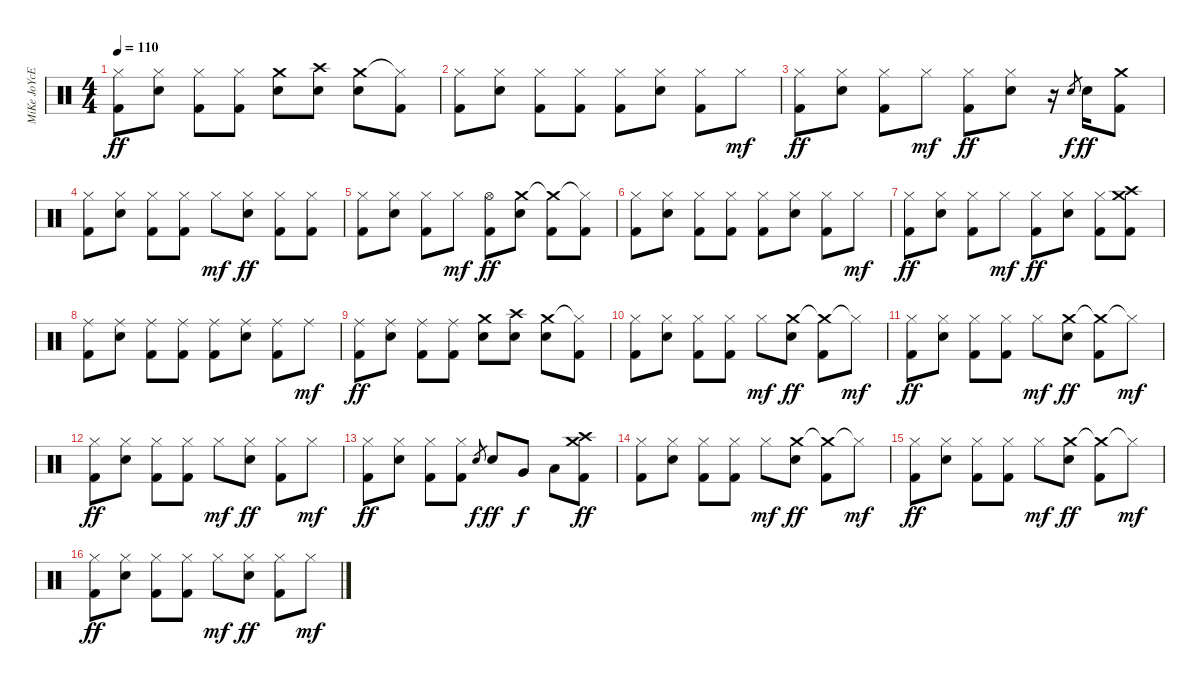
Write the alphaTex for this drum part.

\track ("MiKe JoYcE" "MiKe JoYcE") {instrument percussion}
\staff {score}
\articulation defaults
\ts (4 4)
\tempo 110
\clef neutral
\ks c
("Hi-Hat (closed)" "Kick (hit) 2").8{dy ff} ("Hi-Hat (closed)" "Electric Snare (hit)").8 ("Hi-Hat (closed)" "Kick (hit) 2").8 ("Hi-Hat (closed)" "Kick (hit) 2").8 ("Crash medium (hit)" "Electric Snare (hit)").8 ("Crash high (hit)" "Electric Snare (hit)").8 ("Crash medium (hit)" "Electric Snare (hit)").8 ("Hi-Hat (closed)"{t} "Kick (hit) 2").8 |
("Hi-Hat (closed)" "Kick (hit) 2").8 ("Hi-Hat (closed)" "Electric Snare (hit)").8 ("Hi-Hat (closed)" "Kick (hit) 2").8 ("Hi-Hat (closed)" "Kick (hit) 2").8 ("Hi-Hat (closed)" "Kick (hit) 2").8 ("Hi-Hat (closed)" "Electric Snare (hit)").8 ("Hi-Hat (closed)" "Kick (hit) 2").8 "Hi-Hat (closed)".8{dy mf} |
("Hi-Hat (closed)" "Kick (hit) 2").8{dy ff} ("Hi-Hat (closed)" "Electric Snare (hit)").8 ("Hi-Hat (closed)" "Kick (hit) 2").8 "Hi-Hat (closed)".8{dy mf} ("Hi-Hat (closed)" "Kick (hit) 2").8{dy ff} ("Hi-Hat (closed)" "Electric Snare (hit)").8 r.16 "Electric Snare (hit)".8{gr dy f} "Electric Snare (hit)".16{dy ff} ("Crash medium (hit)" "Kick (hit) 2").8 |
("Hi-Hat (closed)" "Kick (hit) 2").8 ("Hi-Hat (closed)" "Electric Snare (hit)").8 ("Hi-Hat (closed)" "Kick (hit) 2").8 ("Hi-Hat (closed)" "Kick (hit) 2").8 "Hi-Hat (closed)".8{dy mf} ("Hi-Hat (closed)" "Electric Snare (hit)").8{dy ff} ("Hi-Hat (closed)" "Kick (hit) 2").8 ("Hi-Hat (closed)" "Kick (hit) 2").8 |
("Hi-Hat (closed)" "Kick (hit) 2").8 ("Hi-Hat (closed)" "Electric Snare (hit)").8 ("Hi-Hat (closed)" "Kick (hit) 2").8 "Hi-Hat (closed)".8{dy mf} ("Hi-Hat (open)" "Kick (hit) 2").8{dy ff} ("Crash medium (hit)" "Electric Snare (hit)").8 ("Crash medium (hit)"{t} "Kick (hit) 2").8 ("Hi-Hat (closed)"{t} "Kick (hit) 2").8 |
("Hi-Hat (closed)" "Kick (hit) 2").8 ("Hi-Hat (closed)" "Electric Snare (hit)").8 ("Hi-Hat (closed)" "Kick (hit) 2").8 ("Hi-Hat (closed)" "Kick (hit) 2").8 ("Hi-Hat (closed)" "Kick (hit) 2").8 ("Hi-Hat (closed)" "Electric Snare (hit)").8 ("Hi-Hat (closed)" "Kick (hit) 2").8 "Hi-Hat (closed)".8{dy mf} |
("Hi-Hat (closed)" "Kick (hit) 2").8{dy ff} ("Hi-Hat (closed)" "Electric Snare (hit)").8 ("Hi-Hat (closed)" "Kick (hit) 2").8 "Hi-Hat (closed)".8{dy mf} ("Hi-Hat (closed)" "Kick (hit) 2").8{dy ff} ("Hi-Hat (closed)" "Electric Snare (hit)").8 ("Hi-Hat (closed)" "Kick (hit) 2").8 ("Crash high (hit)" "Crash medium (hit)" "Kick (hit) 2").8 |
("Ride (middle)" "Kick (hit) 2").8 ("Ride (middle)" "Electric Snare (hit)").8 ("Ride (middle)" "Kick (hit) 2").8 ("Ride (middle)" "Kick (hit) 2").8 ("Ride (middle)" "Kick (hit) 2").8 ("Ride (middle)" "Electric Snare (hit)").8 ("Ride (middle)" "Kick (hit) 2").8 "Ride (middle)".8{dy mf} |
("Ride (middle)" "Kick (hit) 2").8{dy ff} ("Ride (middle)" "Electric Snare (hit)").8 ("Ride (middle)" "Kick (hit) 2").8 ("Ride (middle)" "Kick (hit) 2").8 ("Crash medium (hit)" "Electric Snare (hit)").8 ("Crash high (hit)" "Electric Snare (hit)").8 ("Crash medium (hit)" "Electric Snare (hit)").8 ("Hi-Hat (closed)"{t} "Kick (hit) 2").8 |
("Hi-Hat (closed)" "Kick (hit) 2").8 ("Hi-Hat (closed)" "Electric Snare (hit)").8 ("Hi-Hat (closed)" "Kick (hit) 2").8 ("Hi-Hat (closed)" "Kick (hit) 2").8 "Hi-Hat (closed)".8{dy mf} ("Crash medium (hit)" "Electric Snare (hit)").8{dy ff} ("Crash medium (hit)"{t} "Kick (hit) 2").8 "Hi-Hat (closed)"{t}.8{dy mf} |
("Hi-Hat (closed)" "Kick (hit) 2").8{dy ff} ("Hi-Hat (closed)" "Electric Snare (hit)").8 ("Hi-Hat (closed)" "Kick (hit) 2").8 ("Hi-Hat (closed)" "Kick (hit) 2").8 "Hi-Hat (closed)".8{dy mf} ("Crash medium (hit)" "Electric Snare (hit)").8{dy ff} ("Crash medium (hit)"{t} "Kick (hit) 2").8 "Hi-Hat (closed)"{t}.8{dy mf} |
("Hi-Hat (closed)" "Kick (hit) 2").8{dy ff} ("Hi-Hat (closed)" "Electric Snare (hit)").8 ("Hi-Hat (closed)" "Kick (hit) 2").8 ("Hi-Hat (closed)" "Kick (hit) 2").8 "Hi-Hat (closed)".8{dy mf} ("Hi-Hat (closed)" "Electric Snare (hit)").8{dy ff} ("Hi-Hat (closed)" "Kick (hit) 2").8 "Hi-Hat (closed)".8{dy mf} |
("Hi-Hat (closed)" "Kick (hit) 2").8{dy ff} ("Hi-Hat (closed)" "Electric Snare (hit)").8 ("Hi-Hat (closed)" "Kick (hit) 2").8 ("Hi-Hat (closed)" "Kick (hit) 2").8 "Electric Snare (hit)".8{gr dy f} "Electric Snare (hit)".8{dy ff} "Very Low Tom (hit)".8{dy f} "Low Floor Tom (hit)".8 ("Crash high (hit)" "Crash medium (hit)" "Kick (hit) 2").8{dy ff} |
("Hi-Hat (closed)" "Kick (hit) 2").8 ("Hi-Hat (closed)" "Electric Snare (hit)").8 ("Hi-Hat (closed)" "Kick (hit) 2").8 ("Hi-Hat (closed)" "Kick (hit) 2").8 "Hi-Hat (closed)".8{dy mf} ("Crash medium (hit)" "Electric Snare (hit)").8{dy ff} ("Crash medium (hit)"{t} "Kick (hit) 2").8 "Hi-Hat (closed)"{t}.8{dy mf} |
("Hi-Hat (closed)" "Kick (hit) 2").8{dy ff} ("Hi-Hat (closed)" "Electric Snare (hit)").8 ("Hi-Hat (closed)" "Kick (hit) 2").8 ("Hi-Hat (closed)" "Kick (hit) 2").8 "Hi-Hat (closed)".8{dy mf} ("Crash medium (hit)" "Electric Snare (hit)").8{dy ff} ("Crash medium (hit)"{t} "Kick (hit) 2").8 "Hi-Hat (closed)"{t}.8{dy mf} |
("Hi-Hat (closed)" "Kick (hit) 2").8{dy ff} ("Hi-Hat (closed)" "Electric Snare (hit)").8 ("Hi-Hat (closed)" "Kick (hit) 2").8 ("Hi-Hat (closed)" "Kick (hit) 2").8 "Hi-Hat (closed)".8{dy mf} ("Hi-Hat (closed)" "Electric Snare (hit)").8{dy ff} ("Hi-Hat (closed)" "Kick (hit) 2").8 "Hi-Hat (closed)".8{dy mf}
